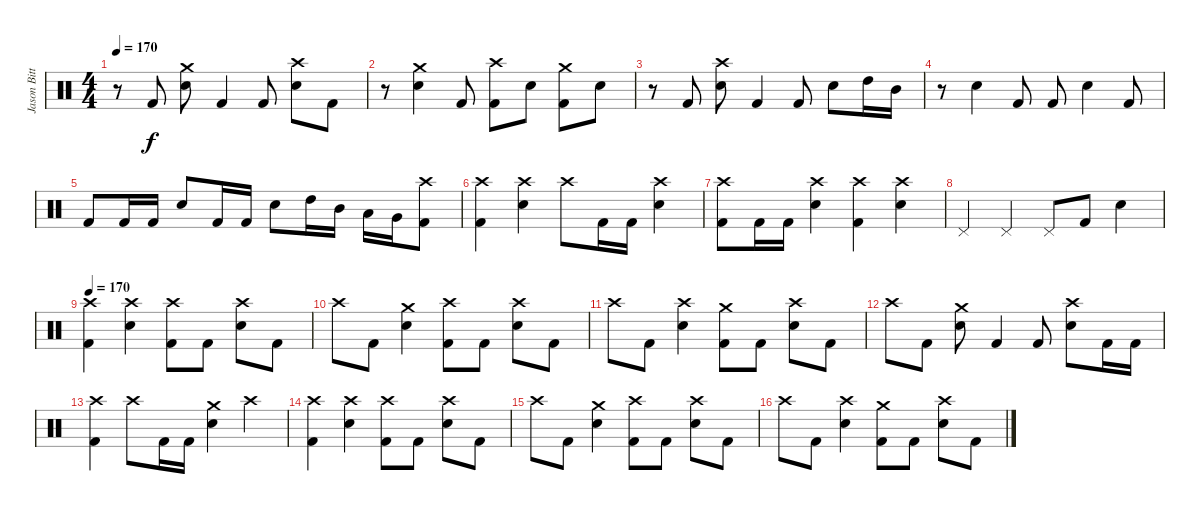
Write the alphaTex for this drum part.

\track ("Jason Bittner" "Jason Bitt") {instrument percussion}
\staff {score}
\articulation defaults
\ts (4 4)
\tempo 170
\clef neutral
\ks c
r.8{dy f} "Kick (hit) 2".8 ("Crash medium (hit)" "Electric Snare (hit)").8 "Kick (hit) 2".4 "Kick (hit) 2".8 ("Crash high (hit)" "Electric Snare (hit)").8 "Kick (hit) 2".8 |
r.8 ("Crash medium (hit)" "Electric Snare (hit)").4 "Kick (hit) 2".8 ("Crash high (hit)" "Kick (hit) 2").8 "Electric Snare (hit)".8 ("Crash medium (hit)" "Kick (hit) 2").8 "Electric Snare (hit)".8 |
r.8 "Kick (hit) 2".8 ("Crash high (hit)" "Electric Snare (hit)").8 "Kick (hit) 2".4 "Kick (hit) 2".8 "Electric Snare (hit)".8 "High Tom (hit)".16 "Mid Tom (hit)".16 |
r.8 "Electric Snare (hit)".4 "Kick (hit) 2".8 "Kick (hit) 2".8 "Electric Snare (hit)".4 "Kick (hit) 2".8 |
"Kick (hit) 2".8 "Kick (hit) 2".16 "Kick (hit) 2".16 "Electric Snare (hit)".8 "Kick (hit) 2".16 "Kick (hit) 2".16 "Electric Snare (hit)".8 "High Tom (hit)".16 "Mid Tom (hit)".16 "Low Tom (hit)".16 "Very Low Tom (hit)".16 ("Crash high (hit)" "Kick (hit) 2").8 |
("Crash high (hit)" "Kick (hit) 2").4 ("Crash high (hit)" "Electric Snare (hit)").4 "Crash high (hit)".8 "Kick (hit) 2".16 "Kick (hit) 2".16 ("Crash high (hit)" "Electric Snare (hit)").4 |
("Crash high (hit)" "Kick (hit) 2").8 "Kick (hit) 2".16 "Kick (hit) 2".16 ("Crash high (hit)" "Electric Snare (hit)").4 ("Crash high (hit)" "Kick (hit) 2").4 ("Crash high (hit)" "Electric Snare (hit)").4 |
"Pedal Hi-Hat (hit)".4 "Pedal Hi-Hat (hit)".4 "Pedal Hi-Hat (hit)".8 "Kick (hit) 2".8 "Electric Snare (hit)".4 |
\tempo 170
("Crash high (hit)" "Kick (hit) 2").4 ("Crash high (hit)" "Electric Snare (hit)").4 ("Crash high (hit)" "Kick (hit) 2").8 "Kick (hit) 2".8 ("Crash high (hit)" "Electric Snare (hit)").8 "Kick (hit) 2".8 |
"Crash high (hit)".8 "Kick (hit) 2".8 ("Crash medium (hit)" "Electric Snare (hit)").4 ("Crash high (hit)" "Kick (hit) 2").8 "Kick (hit) 2".8 ("Crash high (hit)" "Electric Snare (hit)").8 "Kick (hit) 2".8 |
"Crash high (hit)".8 "Kick (hit) 2".8 ("Crash high (hit)" "Electric Snare (hit)").4 ("Crash medium (hit)" "Kick (hit) 2").8 "Kick (hit) 2".8 ("Crash high (hit)" "Electric Snare (hit)").8 "Kick (hit) 2".8 |
"Crash high (hit)".8 "Kick (hit) 2".8 ("Crash medium (hit)" "Electric Snare (hit)").8 "Kick (hit) 2".4 "Kick (hit) 2".8 ("Crash high (hit)" "Electric Snare (hit)").8 "Kick (hit) 2".16 "Kick (hit) 2".16 |
("Crash high (hit)" "Kick (hit) 2").4 "Crash high (hit)".8 "Kick (hit) 2".16 "Kick (hit) 2".16 ("Crash medium (hit)" "Electric Snare (hit)").4 "Crash high (hit)".4 |
("Crash high (hit)" "Kick (hit) 2").4 ("Crash high (hit)" "Electric Snare (hit)").4 ("Crash high (hit)" "Kick (hit) 2").8 "Kick (hit) 2".8 ("Crash high (hit)" "Electric Snare (hit)").8 "Kick (hit) 2".8 |
"Crash high (hit)".8 "Kick (hit) 2".8 ("Crash medium (hit)" "Electric Snare (hit)").4 ("Crash high (hit)" "Kick (hit) 2").8 "Kick (hit) 2".8 ("Crash high (hit)" "Electric Snare (hit)").8 "Kick (hit) 2".8 |
"Crash high (hit)".8 "Kick (hit) 2".8 ("Crash high (hit)" "Electric Snare (hit)").4 ("Crash medium (hit)" "Kick (hit) 2").8 "Kick (hit) 2".8 ("Crash high (hit)" "Electric Snare (hit)").8 "Kick (hit) 2".8
